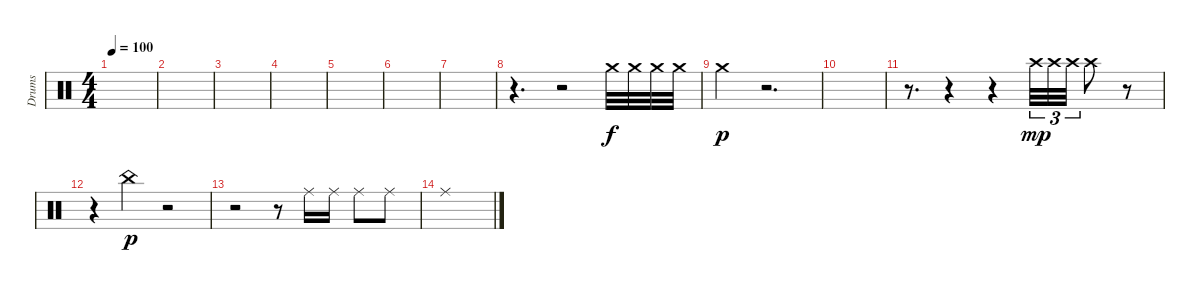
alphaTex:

\track ("Drums" "Drums") {instrument percussion}
\staff {score}
\articulation defaults
\ts (4 4)
\tempo 100
\clef neutral
\ks c
|
|
|
|
|
|
|
r.4{d} r.2 "Crash medium (hit)".32 "Crash medium (hit)".32 "Crash medium (hit)".32 "Crash medium (hit)".32 |
"Crash medium (hit)".4{dy p} r.2{d} |
|
r.8{d} r.4 r.4 "Crash high (hit)".32{tu (3 2) dy mp} "Crash high (hit)".32{tu (3 2)} "Crash high (hit)".32{tu (3 2)} "Crash high (hit)".8 r.8 |
r.4 "China (hit)".4{dy p} r.2 |
r.2 r.8 "Ride (middle)".16 "Ride (middle)".16 "Ride (middle)".8 "Ride (middle)".8 |
"Ride (middle)".1
